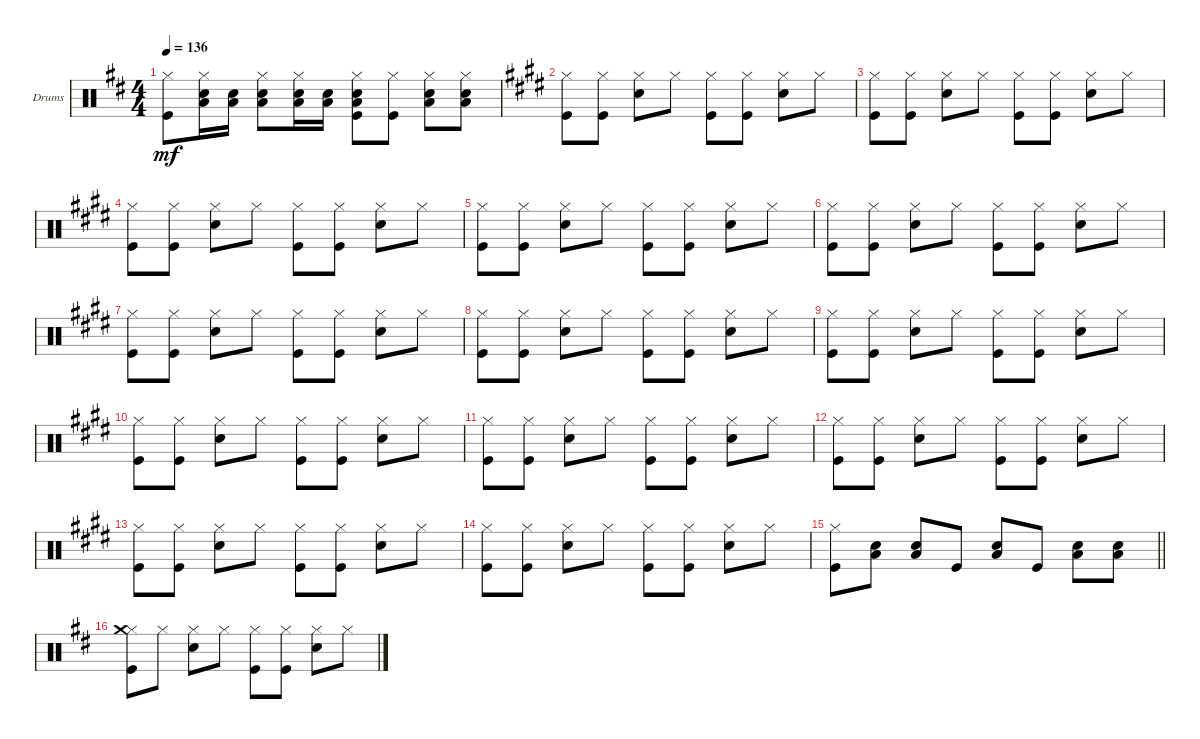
\defaultSystemsLayout 4
\bracketExtendMode groupsimilarinstruments
\firstSystemTrackNameOrientation horizontal
\otherSystemsTrackNameOrientation horizontal
\track ("Greg Bissonette Drums" "Drums") {instrument percussion}
\staff {score}
\articulation defaults
\ts (4 4)
\tempo 136
\clef neutral
\ks d
("Kick (hit)" "Hi-Hat (closed)").8{dy mf} ("Snare (hit) 2" "Hi-Hat (closed)" "Low Tom (hit)").16 ("Snare (hit) 2" "Low Tom (hit)").16 ("Snare (hit) 2" "Hi-Hat (closed)" "Low Tom (hit)").8 ("Snare (hit) 2" "Hi-Hat (closed)" "Low Tom (hit)").16 ("Snare (hit) 2" "Low Tom (hit)").16 ("Kick (hit)" "Snare (hit) 2" "Hi-Hat (closed)" "Low Tom (hit)").8 ("Kick (hit)" "Hi-Hat (closed)").8 ("Snare (hit) 2" "Hi-Hat (closed)" "Low Tom (hit)").8 ("Snare (hit) 2" "Hi-Hat (closed)" "Low Tom (hit)").8 |
\ks c#minor
("Kick (hit)" "Hi-Hat (closed)").8 ("Kick (hit)" "Hi-Hat (closed)").8 ("Snare (hit) 2" "Hi-Hat (closed)").8 "Hi-Hat (closed)".8 ("Kick (hit)" "Hi-Hat (closed)").8 ("Kick (hit)" "Hi-Hat (closed)").8 ("Snare (hit) 2" "Hi-Hat (closed)").8 "Hi-Hat (closed)".8 |
("Kick (hit)" "Hi-Hat (closed)").8 ("Kick (hit)" "Hi-Hat (closed)").8 ("Snare (hit) 2" "Hi-Hat (closed)").8 "Hi-Hat (closed)".8 ("Kick (hit)" "Hi-Hat (closed)").8 ("Kick (hit)" "Hi-Hat (closed)").8 ("Snare (hit) 2" "Hi-Hat (closed)").8 "Hi-Hat (closed)".8 |
("Kick (hit)" "Hi-Hat (closed)").8 ("Kick (hit)" "Hi-Hat (closed)").8 ("Snare (hit) 2" "Hi-Hat (closed)").8 "Hi-Hat (closed)".8 ("Kick (hit)" "Hi-Hat (closed)").8 ("Kick (hit)" "Hi-Hat (closed)").8 ("Snare (hit) 2" "Hi-Hat (closed)").8 "Hi-Hat (closed)".8 |
("Kick (hit)" "Hi-Hat (closed)").8 ("Kick (hit)" "Hi-Hat (closed)").8 ("Snare (hit) 2" "Hi-Hat (closed)").8 "Hi-Hat (closed)".8 ("Kick (hit)" "Hi-Hat (closed)").8 ("Kick (hit)" "Hi-Hat (closed)").8 ("Snare (hit) 2" "Hi-Hat (closed)").8 "Hi-Hat (closed)".8 |
("Kick (hit)" "Hi-Hat (closed)").8 ("Kick (hit)" "Hi-Hat (closed)").8 ("Snare (hit) 2" "Hi-Hat (closed)").8 "Hi-Hat (closed)".8 ("Kick (hit)" "Hi-Hat (closed)").8 ("Kick (hit)" "Hi-Hat (closed)").8 ("Snare (hit) 2" "Hi-Hat (closed)").8 "Hi-Hat (closed)".8 |
("Kick (hit)" "Hi-Hat (closed)").8 ("Kick (hit)" "Hi-Hat (closed)").8 ("Snare (hit) 2" "Hi-Hat (closed)").8 "Hi-Hat (closed)".8 ("Kick (hit)" "Hi-Hat (closed)").8 ("Kick (hit)" "Hi-Hat (closed)").8 ("Snare (hit) 2" "Hi-Hat (closed)").8 "Hi-Hat (closed)".8 |
("Kick (hit)" "Hi-Hat (closed)").8 ("Kick (hit)" "Hi-Hat (closed)").8 ("Snare (hit) 2" "Hi-Hat (closed)").8 "Hi-Hat (closed)".8 ("Kick (hit)" "Hi-Hat (closed)").8 ("Kick (hit)" "Hi-Hat (closed)").8 ("Snare (hit) 2" "Hi-Hat (closed)").8 "Hi-Hat (closed)".8 |
("Kick (hit)" "Hi-Hat (closed)").8 ("Kick (hit)" "Hi-Hat (closed)").8 ("Snare (hit) 2" "Hi-Hat (closed)").8 "Hi-Hat (closed)".8 ("Kick (hit)" "Hi-Hat (closed)").8 ("Kick (hit)" "Hi-Hat (closed)").8 ("Snare (hit) 2" "Hi-Hat (closed)").8 "Hi-Hat (closed)".8 |
("Kick (hit)" "Hi-Hat (closed)").8 ("Kick (hit)" "Hi-Hat (closed)").8 ("Snare (hit) 2" "Hi-Hat (closed)").8 "Hi-Hat (closed)".8 ("Kick (hit)" "Hi-Hat (closed)").8 ("Kick (hit)" "Hi-Hat (closed)").8 ("Snare (hit) 2" "Hi-Hat (closed)").8 "Hi-Hat (closed)".8 |
("Kick (hit)" "Hi-Hat (closed)").8 ("Kick (hit)" "Hi-Hat (closed)").8 ("Snare (hit) 2" "Hi-Hat (closed)").8 "Hi-Hat (closed)".8 ("Kick (hit)" "Hi-Hat (closed)").8 ("Kick (hit)" "Hi-Hat (closed)").8 ("Snare (hit) 2" "Hi-Hat (closed)").8 "Hi-Hat (closed)".8 |
("Kick (hit)" "Hi-Hat (closed)").8 ("Kick (hit)" "Hi-Hat (closed)").8 ("Snare (hit) 2" "Hi-Hat (closed)").8 "Hi-Hat (closed)".8 ("Kick (hit)" "Hi-Hat (closed)").8 ("Kick (hit)" "Hi-Hat (closed)").8 ("Snare (hit) 2" "Hi-Hat (closed)").8 "Hi-Hat (closed)".8 |
("Kick (hit)" "Hi-Hat (closed)").8 ("Kick (hit)" "Hi-Hat (closed)").8 ("Snare (hit) 2" "Hi-Hat (closed)").8 "Hi-Hat (closed)".8 ("Kick (hit)" "Hi-Hat (closed)").8 ("Kick (hit)" "Hi-Hat (closed)").8 ("Snare (hit) 2" "Hi-Hat (closed)").8 "Hi-Hat (closed)".8 |
("Kick (hit)" "Hi-Hat (closed)").8 ("Kick (hit)" "Hi-Hat (closed)").8 ("Snare (hit) 2" "Hi-Hat (closed)").8 "Hi-Hat (closed)".8 ("Kick (hit)" "Hi-Hat (closed)").8 ("Kick (hit)" "Hi-Hat (closed)").8 ("Snare (hit) 2" "Hi-Hat (closed)").8 "Hi-Hat (closed)".8 |
\barLineRight lightlight
("Kick (hit)" "Hi-Hat (closed)").8 ("Snare (hit) 2" "Low Tom (hit)").8 ("Snare (hit) 2" "Low Tom (hit)").8 "Kick (hit)".8 ("Snare (hit) 2" "Low Tom (hit)").8 "Kick (hit)".8 ("Snare (hit) 2" "Low Tom (hit)").8 ("Snare (hit) 2" "Low Tom (hit)").8 |
\ks d
("Kick (hit)" "Hi-Hat (closed)" "Crash medium (hit)").8 "Hi-Hat (closed)".8 ("Snare (hit) 2" "Hi-Hat (closed)").8 "Hi-Hat (closed)".8 ("Kick (hit)" "Hi-Hat (closed)").8 ("Kick (hit)" "Hi-Hat (closed)").8 ("Snare (hit) 2" "Hi-Hat (closed)").8 "Hi-Hat (closed)".8
